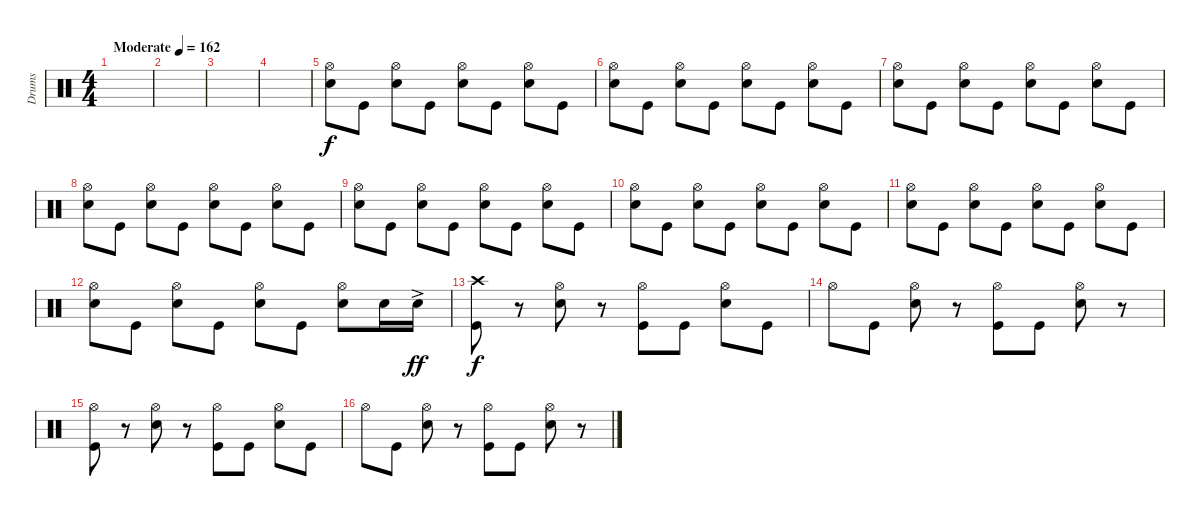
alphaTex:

\track ("Drums" "Drums") {instrument percussion}
\staff {score}
\articulation defaults
\ts (4 4)
\tempo (162 "Moderate")
\clef neutral
\ks c
|
|
|
|
("Hi-Hat (open)" "Snare (hit) 2").8 "Kick (hit)".8 ("Hi-Hat (open)" "Snare (hit) 2").8 "Kick (hit)".8 ("Hi-Hat (open)" "Snare (hit) 2").8 "Kick (hit)".8 ("Hi-Hat (open)" "Snare (hit) 2").8 "Kick (hit)".8 |
("Hi-Hat (open)" "Snare (hit) 2").8 "Kick (hit)".8 ("Hi-Hat (open)" "Snare (hit) 2").8 "Kick (hit)".8 ("Hi-Hat (open)" "Snare (hit) 2").8 "Kick (hit)".8 ("Hi-Hat (open)" "Snare (hit) 2").8 "Kick (hit)".8 |
("Hi-Hat (open)" "Snare (hit) 2").8 "Kick (hit)".8 ("Hi-Hat (open)" "Snare (hit) 2").8 "Kick (hit)".8 ("Hi-Hat (open)" "Snare (hit) 2").8 "Kick (hit)".8 ("Hi-Hat (open)" "Snare (hit) 2").8 "Kick (hit)".8 |
("Hi-Hat (open)" "Snare (hit) 2").8 "Kick (hit)".8 ("Hi-Hat (open)" "Snare (hit) 2").8 "Kick (hit)".8 ("Hi-Hat (open)" "Snare (hit) 2").8 "Kick (hit)".8 ("Hi-Hat (open)" "Snare (hit) 2").8 "Kick (hit)".8 |
("Hi-Hat (open)" "Snare (hit) 2").8 "Kick (hit)".8 ("Hi-Hat (open)" "Snare (hit) 2").8 "Kick (hit)".8 ("Hi-Hat (open)" "Snare (hit) 2").8 "Kick (hit)".8 ("Hi-Hat (open)" "Snare (hit) 2").8 "Kick (hit)".8 |
("Hi-Hat (open)" "Snare (hit) 2").8 "Kick (hit)".8 ("Hi-Hat (open)" "Snare (hit) 2").8 "Kick (hit)".8 ("Hi-Hat (open)" "Snare (hit) 2").8 "Kick (hit)".8 ("Hi-Hat (open)" "Snare (hit) 2").8 "Kick (hit)".8 |
("Hi-Hat (open)" "Snare (hit) 2").8 "Kick (hit)".8 ("Hi-Hat (open)" "Snare (hit) 2").8 "Kick (hit)".8 ("Hi-Hat (open)" "Snare (hit) 2").8 "Kick (hit)".8 ("Hi-Hat (open)" "Snare (hit) 2").8 "Kick (hit)".8 |
("Hi-Hat (open)" "Snare (hit) 2").8 "Kick (hit)".8 ("Hi-Hat (open)" "Snare (hit) 2").8 "Kick (hit)".8 ("Hi-Hat (open)" "Snare (hit) 2").8 "Kick (hit)".8 ("Hi-Hat (open)" "Snare (hit) 2").8 "Snare (hit) 2".16 "Snare (hit) 2"{ac}.16{dy ff} |
("Crash high (hit)" "Kick (hit)").8{dy f} r.8 ("Hi-Hat (open)" "Snare (hit) 2").8 r.8 ("Hi-Hat (open)" "Kick (hit)").8 "Kick (hit)".8 ("Hi-Hat (open)" "Snare (hit) 2").8 "Kick (hit)".8 |
"Hi-Hat (open)".8 "Kick (hit)".8 ("Hi-Hat (open)" "Snare (hit) 2").8 r.8 ("Hi-Hat (open)" "Kick (hit)").8 "Kick (hit)".8 ("Hi-Hat (open)" "Snare (hit) 2").8 r.8 |
("Hi-Hat (open)" "Kick (hit)").8 r.8 ("Hi-Hat (open)" "Snare (hit) 2").8 r.8 ("Hi-Hat (open)" "Kick (hit)").8 "Kick (hit)".8 ("Hi-Hat (open)" "Snare (hit) 2").8 "Kick (hit)".8 |
"Hi-Hat (open)".8 "Kick (hit)".8 ("Hi-Hat (open)" "Snare (hit) 2").8 r.8 ("Hi-Hat (open)" "Kick (hit)").8 "Kick (hit)".8 ("Hi-Hat (open)" "Snare (hit) 2").8 r.8
